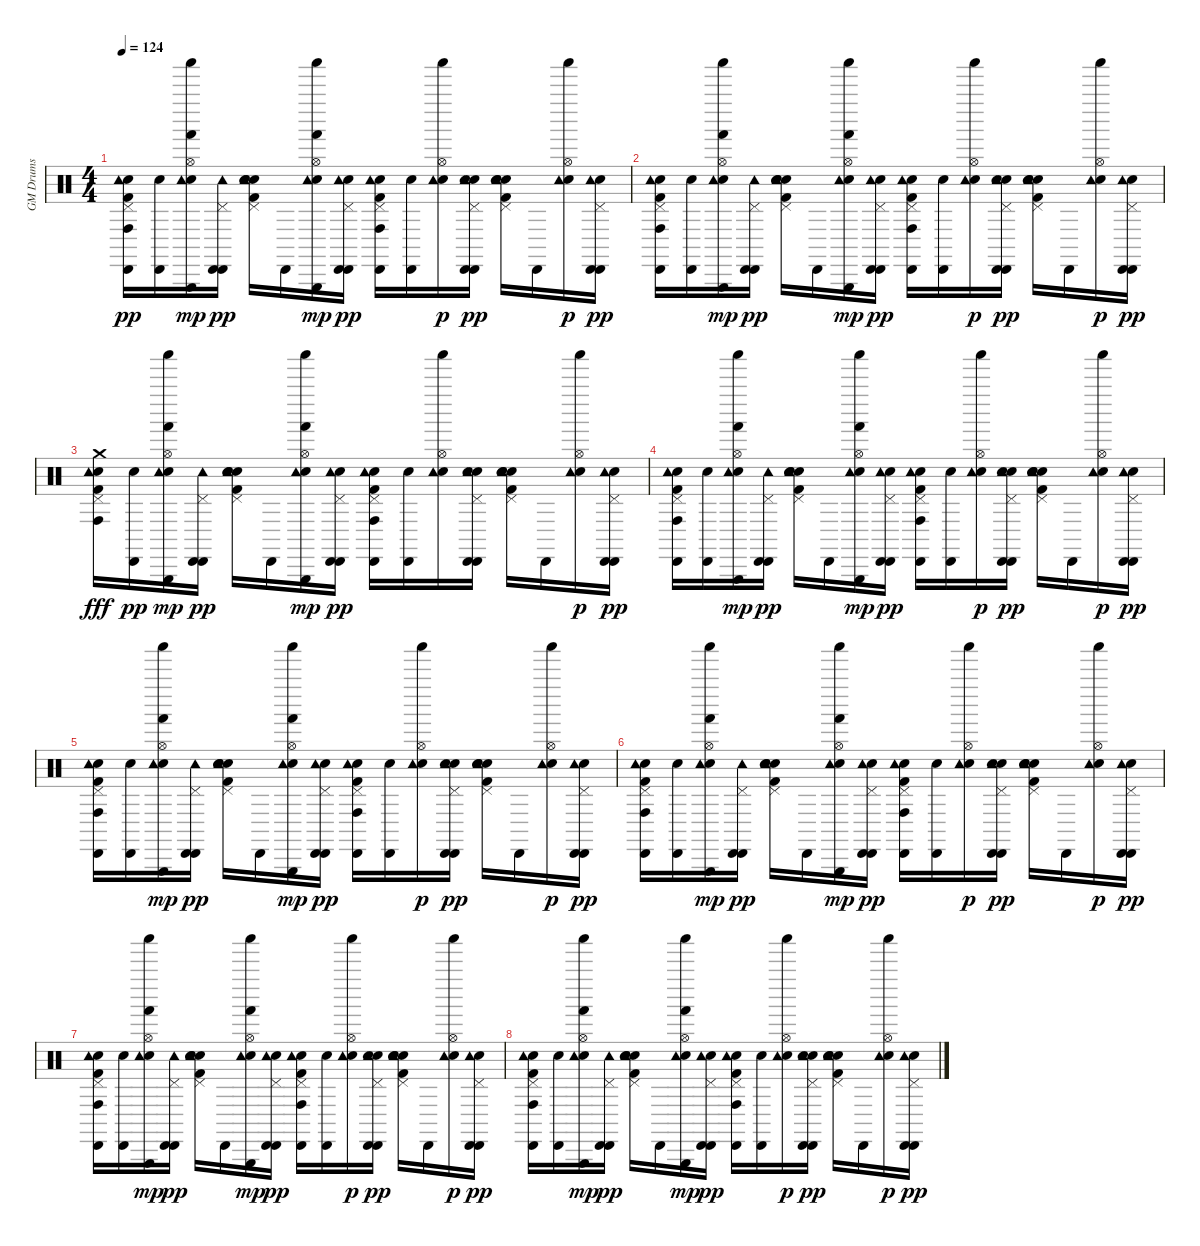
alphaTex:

\track ("GM Drums" "GM Drums") {instrument percussion}
\staff {score}
\articulation defaults
\ts (4 4)
\tempo 124
\clef neutral
\ks c
("Snare (hit)" "Kick (hit) 2" "Pedal Hi-Hat (hit)" "Tambourine (hit)" "Conga high (hit)" "Cabasa (hit)").16{dy pp} ("Snare (hit)" "Cabasa (hit)").16 ("Snare (hit)" "Hi-Hat (open)" "Tambourine (hit)" "Hand (hit)" "Triangle (hit)" "Shaker (hit)").16{dy mp} ("Pedal Hi-Hat (hit)" "Tambourine (hit)" "Cabasa (hit)" "Cabasa (hit)").16{dy pp} ("Snare (hit)" "Kick (hit) 2" "Snare (hit) 2" "Hand Clap (hit)" "Pedal Hi-Hat (hit)" "Tambourine (hit)").16 "Cabasa (hit)".16 ("Snare (hit)" "Hi-Hat (open)" "Tambourine (hit)" "Hand (hit)" "Triangle (hit)" "Shaker (hit)").16{dy mp} ("Snare (hit)" "Pedal Hi-Hat (hit)" "Tambourine (hit)" "Cabasa (hit)" "Cabasa (hit)").16{dy pp} ("Snare (hit)" "Kick (hit) 2" "Pedal Hi-Hat (hit)" "Tambourine (hit)" "Conga high (hit)" "Cabasa (hit)").16 ("Snare (hit)" "Cabasa (hit)").16 ("Snare (hit)" "Hi-Hat (open)" "Tambourine (hit)" "Shaker (hit)").16{dy p} ("Snare (hit) 2" "Hand Clap (hit)" "Pedal Hi-Hat (hit)" "Tambourine (hit)" "Cabasa (hit)" "Cabasa (hit)").16{dy pp} ("Snare (hit)" "Kick (hit) 2" "Snare (hit) 2" "Hand Clap (hit)" "Pedal Hi-Hat (hit)" "Tambourine (hit)").16 "Cabasa (hit)".16 ("Snare (hit)" "Hi-Hat (open)" "Tambourine (hit)" "Shaker (hit)").16{dy p} ("Snare (hit)" "Pedal Hi-Hat (hit)" "Tambourine (hit)" "Cabasa (hit)" "Cabasa (hit)").16{dy pp} |
("Snare (hit)" "Kick (hit) 2" "Pedal Hi-Hat (hit)" "Tambourine (hit)" "Conga high (hit)" "Cabasa (hit)").16 ("Snare (hit)" "Cabasa (hit)").16 ("Snare (hit)" "Hi-Hat (open)" "Tambourine (hit)" "Hand (hit)" "Triangle (hit)" "Shaker (hit)").16{dy mp} ("Pedal Hi-Hat (hit)" "Tambourine (hit)" "Cabasa (hit)" "Cabasa (hit)").16{dy pp} ("Snare (hit)" "Kick (hit) 2" "Snare (hit) 2" "Hand Clap (hit)" "Pedal Hi-Hat (hit)" "Tambourine (hit)").16 "Cabasa (hit)".16 ("Snare (hit)" "Hi-Hat (open)" "Tambourine (hit)" "Hand (hit)" "Triangle (hit)" "Shaker (hit)").16{dy mp} ("Snare (hit)" "Pedal Hi-Hat (hit)" "Tambourine (hit)" "Cabasa (hit)" "Cabasa (hit)").16{dy pp} ("Snare (hit)" "Kick (hit) 2" "Pedal Hi-Hat (hit)" "Tambourine (hit)" "Conga high (hit)" "Cabasa (hit)").16 ("Snare (hit)" "Cabasa (hit)").16 ("Snare (hit)" "Hi-Hat (open)" "Tambourine (hit)" "Shaker (hit)").16{dy p} ("Snare (hit) 2" "Hand Clap (hit)" "Pedal Hi-Hat (hit)" "Tambourine (hit)" "Cabasa (hit)" "Cabasa (hit)").16{dy pp} ("Snare (hit)" "Kick (hit) 2" "Snare (hit) 2" "Hand Clap (hit)" "Pedal Hi-Hat (hit)" "Tambourine (hit)").16 "Cabasa (hit)".16 ("Snare (hit)" "Hi-Hat (open)" "Tambourine (hit)" "Shaker (hit)").16{dy p} ("Snare (hit)" "Pedal Hi-Hat (hit)" "Tambourine (hit)" "Cabasa (hit)" "Cabasa (hit)").16{dy pp} |
("Snare (hit)" "Kick (hit) 2" "Pedal Hi-Hat (hit)" "Tambourine (hit)" "Crash medium (hit)" "Conga high (hit)").16{dy fff} ("Snare (hit)" "Cabasa (hit)").16{dy pp} ("Snare (hit)" "Hi-Hat (open)" "Tambourine (hit)" "Hand (hit)" "Triangle (hit)" "Shaker (hit)").16{dy mp} ("Pedal Hi-Hat (hit)" "Tambourine (hit)" "Cabasa (hit)" "Cabasa (hit)").16{dy pp} ("Snare (hit)" "Kick (hit) 2" "Snare (hit) 2" "Hand Clap (hit)" "Pedal Hi-Hat (hit)" "Tambourine (hit)").16 "Cabasa (hit)".16 ("Snare (hit)" "Hi-Hat (open)" "Tambourine (hit)" "Hand (hit)" "Triangle (hit)" "Shaker (hit)").16{dy mp} ("Snare (hit)" "Pedal Hi-Hat (hit)" "Tambourine (hit)" "Cabasa (hit)" "Cabasa (hit)").16{dy pp} ("Snare (hit)" "Kick (hit) 2" "Pedal Hi-Hat (hit)" "Tambourine (hit)" "Conga high (hit)" "Cabasa (hit)").16 ("Snare (hit)" "Cabasa (hit)").16 ("Snare (hit)" "Hi-Hat (open)" "Tambourine (hit)" "Shaker (hit)").16 ("Snare (hit) 2" "Hand Clap (hit)" "Pedal Hi-Hat (hit)" "Tambourine (hit)" "Cabasa (hit)" "Cabasa (hit)").16 ("Snare (hit)" "Kick (hit) 2" "Snare (hit) 2" "Hand Clap (hit)" "Pedal Hi-Hat (hit)" "Tambourine (hit)").16 "Cabasa (hit)".16 ("Snare (hit)" "Hi-Hat (open)" "Tambourine (hit)" "Shaker (hit)").16{dy p} ("Snare (hit)" "Pedal Hi-Hat (hit)" "Tambourine (hit)" "Cabasa (hit)" "Cabasa (hit)").16{dy pp} |
("Snare (hit)" "Kick (hit) 2" "Pedal Hi-Hat (hit)" "Tambourine (hit)" "Conga high (hit)" "Cabasa (hit)").16 ("Snare (hit)" "Cabasa (hit)").16 ("Snare (hit)" "Hi-Hat (open)" "Tambourine (hit)" "Hand (hit)" "Triangle (hit)" "Shaker (hit)").16{dy mp} ("Pedal Hi-Hat (hit)" "Tambourine (hit)" "Cabasa (hit)" "Cabasa (hit)").16{dy pp} ("Snare (hit)" "Kick (hit) 2" "Snare (hit) 2" "Hand Clap (hit)" "Pedal Hi-Hat (hit)" "Tambourine (hit)").16 "Cabasa (hit)".16 ("Snare (hit)" "Hi-Hat (open)" "Tambourine (hit)" "Hand (hit)" "Triangle (hit)" "Shaker (hit)").16{dy mp} ("Snare (hit)" "Pedal Hi-Hat (hit)" "Tambourine (hit)" "Cabasa (hit)" "Cabasa (hit)").16{dy pp} ("Snare (hit)" "Kick (hit) 2" "Pedal Hi-Hat (hit)" "Tambourine (hit)" "Conga high (hit)" "Cabasa (hit)").16 ("Snare (hit)" "Cabasa (hit)").16 ("Snare (hit)" "Hi-Hat (open)" "Tambourine (hit)" "Shaker (hit)").16{dy p} ("Snare (hit) 2" "Hand Clap (hit)" "Pedal Hi-Hat (hit)" "Tambourine (hit)" "Cabasa (hit)" "Cabasa (hit)").16{dy pp} ("Snare (hit)" "Kick (hit) 2" "Snare (hit) 2" "Hand Clap (hit)" "Pedal Hi-Hat (hit)" "Tambourine (hit)").16 "Cabasa (hit)".16 ("Snare (hit)" "Hi-Hat (open)" "Tambourine (hit)" "Shaker (hit)").16{dy p} ("Snare (hit)" "Pedal Hi-Hat (hit)" "Tambourine (hit)" "Cabasa (hit)" "Cabasa (hit)").16{dy pp} |
("Snare (hit)" "Kick (hit) 2" "Pedal Hi-Hat (hit)" "Tambourine (hit)" "Conga high (hit)" "Cabasa (hit)").16 ("Snare (hit)" "Cabasa (hit)").16 ("Snare (hit)" "Hi-Hat (open)" "Tambourine (hit)" "Hand (hit)" "Triangle (hit)" "Shaker (hit)").16{dy mp} ("Pedal Hi-Hat (hit)" "Tambourine (hit)" "Cabasa (hit)" "Cabasa (hit)").16{dy pp} ("Snare (hit)" "Kick (hit) 2" "Snare (hit) 2" "Hand Clap (hit)" "Pedal Hi-Hat (hit)" "Tambourine (hit)").16 "Cabasa (hit)".16 ("Snare (hit)" "Hi-Hat (open)" "Tambourine (hit)" "Hand (hit)" "Triangle (hit)" "Shaker (hit)").16{dy mp} ("Snare (hit)" "Pedal Hi-Hat (hit)" "Tambourine (hit)" "Cabasa (hit)" "Cabasa (hit)").16{dy pp} ("Snare (hit)" "Kick (hit) 2" "Pedal Hi-Hat (hit)" "Tambourine (hit)" "Conga high (hit)" "Cabasa (hit)").16 ("Snare (hit)" "Cabasa (hit)").16 ("Snare (hit)" "Hi-Hat (open)" "Tambourine (hit)" "Shaker (hit)").16{dy p} ("Snare (hit) 2" "Hand Clap (hit)" "Pedal Hi-Hat (hit)" "Tambourine (hit)" "Cabasa (hit)" "Cabasa (hit)").16{dy pp} ("Snare (hit)" "Kick (hit) 2" "Snare (hit) 2" "Hand Clap (hit)" "Pedal Hi-Hat (hit)" "Tambourine (hit)").16 "Cabasa (hit)".16 ("Snare (hit)" "Hi-Hat (open)" "Tambourine (hit)" "Shaker (hit)").16{dy p} ("Snare (hit)" "Pedal Hi-Hat (hit)" "Tambourine (hit)" "Cabasa (hit)" "Cabasa (hit)").16{dy pp} |
("Snare (hit)" "Kick (hit) 2" "Pedal Hi-Hat (hit)" "Tambourine (hit)" "Conga high (hit)" "Cabasa (hit)").16 ("Snare (hit)" "Cabasa (hit)").16 ("Snare (hit)" "Hi-Hat (open)" "Tambourine (hit)" "Hand (hit)" "Triangle (hit)" "Shaker (hit)").16{dy mp} ("Pedal Hi-Hat (hit)" "Tambourine (hit)" "Cabasa (hit)" "Cabasa (hit)").16{dy pp} ("Snare (hit)" "Kick (hit) 2" "Snare (hit) 2" "Hand Clap (hit)" "Pedal Hi-Hat (hit)" "Tambourine (hit)").16 "Cabasa (hit)".16 ("Snare (hit)" "Hi-Hat (open)" "Tambourine (hit)" "Hand (hit)" "Triangle (hit)" "Shaker (hit)").16{dy mp} ("Snare (hit)" "Pedal Hi-Hat (hit)" "Tambourine (hit)" "Cabasa (hit)" "Cabasa (hit)").16{dy pp} ("Snare (hit)" "Kick (hit) 2" "Pedal Hi-Hat (hit)" "Tambourine (hit)" "Conga high (hit)" "Cabasa (hit)").16 ("Snare (hit)" "Cabasa (hit)").16 ("Snare (hit)" "Hi-Hat (open)" "Tambourine (hit)" "Shaker (hit)").16{dy p} ("Snare (hit) 2" "Hand Clap (hit)" "Pedal Hi-Hat (hit)" "Tambourine (hit)" "Cabasa (hit)" "Cabasa (hit)").16{dy pp} ("Snare (hit)" "Kick (hit) 2" "Snare (hit) 2" "Hand Clap (hit)" "Pedal Hi-Hat (hit)" "Tambourine (hit)").16 "Cabasa (hit)".16 ("Snare (hit)" "Hi-Hat (open)" "Tambourine (hit)" "Shaker (hit)").16{dy p} ("Snare (hit)" "Pedal Hi-Hat (hit)" "Tambourine (hit)" "Cabasa (hit)" "Cabasa (hit)").16{dy pp} |
("Snare (hit)" "Kick (hit) 2" "Pedal Hi-Hat (hit)" "Tambourine (hit)" "Conga high (hit)" "Cabasa (hit)").16 ("Snare (hit)" "Cabasa (hit)").16 ("Snare (hit)" "Hi-Hat (open)" "Tambourine (hit)" "Hand (hit)" "Triangle (hit)" "Shaker (hit)").16{dy mp} ("Pedal Hi-Hat (hit)" "Tambourine (hit)" "Cabasa (hit)" "Cabasa (hit)").16{dy pp} ("Snare (hit)" "Kick (hit) 2" "Snare (hit) 2" "Hand Clap (hit)" "Pedal Hi-Hat (hit)" "Tambourine (hit)").16 "Cabasa (hit)".16 ("Snare (hit)" "Hi-Hat (open)" "Tambourine (hit)" "Hand (hit)" "Triangle (hit)" "Shaker (hit)").16{dy mp} ("Snare (hit)" "Pedal Hi-Hat (hit)" "Tambourine (hit)" "Cabasa (hit)" "Cabasa (hit)").16{dy pp} ("Snare (hit)" "Kick (hit) 2" "Pedal Hi-Hat (hit)" "Tambourine (hit)" "Conga high (hit)" "Cabasa (hit)").16 ("Snare (hit)" "Cabasa (hit)").16 ("Snare (hit)" "Hi-Hat (open)" "Tambourine (hit)" "Shaker (hit)").16{dy p} ("Snare (hit) 2" "Hand Clap (hit)" "Pedal Hi-Hat (hit)" "Tambourine (hit)" "Cabasa (hit)" "Cabasa (hit)").16{dy pp} ("Snare (hit)" "Kick (hit) 2" "Snare (hit) 2" "Hand Clap (hit)" "Pedal Hi-Hat (hit)" "Tambourine (hit)").16 "Cabasa (hit)".16 ("Snare (hit)" "Hi-Hat (open)" "Tambourine (hit)" "Shaker (hit)").16{dy p} ("Snare (hit)" "Pedal Hi-Hat (hit)" "Tambourine (hit)" "Cabasa (hit)" "Cabasa (hit)").16{dy pp} |
("Snare (hit)" "Kick (hit) 2" "Pedal Hi-Hat (hit)" "Tambourine (hit)" "Conga high (hit)" "Cabasa (hit)").16 ("Snare (hit)" "Cabasa (hit)").16 ("Snare (hit)" "Hi-Hat (open)" "Tambourine (hit)" "Hand (hit)" "Triangle (hit)" "Shaker (hit)").16{dy mp} ("Pedal Hi-Hat (hit)" "Tambourine (hit)" "Cabasa (hit)" "Cabasa (hit)").16{dy pp} ("Snare (hit)" "Kick (hit) 2" "Snare (hit) 2" "Hand Clap (hit)" "Pedal Hi-Hat (hit)" "Tambourine (hit)").16 "Cabasa (hit)".16 ("Snare (hit)" "Hi-Hat (open)" "Tambourine (hit)" "Hand (hit)" "Triangle (hit)" "Shaker (hit)").16{dy mp} ("Snare (hit)" "Pedal Hi-Hat (hit)" "Tambourine (hit)" "Cabasa (hit)" "Cabasa (hit)").16{dy pp} ("Snare (hit)" "Kick (hit) 2" "Pedal Hi-Hat (hit)" "Tambourine (hit)" "Conga high (hit)" "Cabasa (hit)").16 ("Snare (hit)" "Cabasa (hit)").16 ("Snare (hit)" "Hi-Hat (open)" "Tambourine (hit)" "Shaker (hit)").16{dy p} ("Snare (hit) 2" "Hand Clap (hit)" "Pedal Hi-Hat (hit)" "Tambourine (hit)" "Cabasa (hit)" "Cabasa (hit)").16{dy pp} ("Snare (hit)" "Kick (hit) 2" "Snare (hit) 2" "Hand Clap (hit)" "Pedal Hi-Hat (hit)" "Tambourine (hit)").16 "Cabasa (hit)".16 ("Snare (hit)" "Hi-Hat (open)" "Tambourine (hit)" "Shaker (hit)").16{dy p} ("Snare (hit)" "Pedal Hi-Hat (hit)" "Tambourine (hit)" "Cabasa (hit)" "Cabasa (hit)").16{dy pp}
